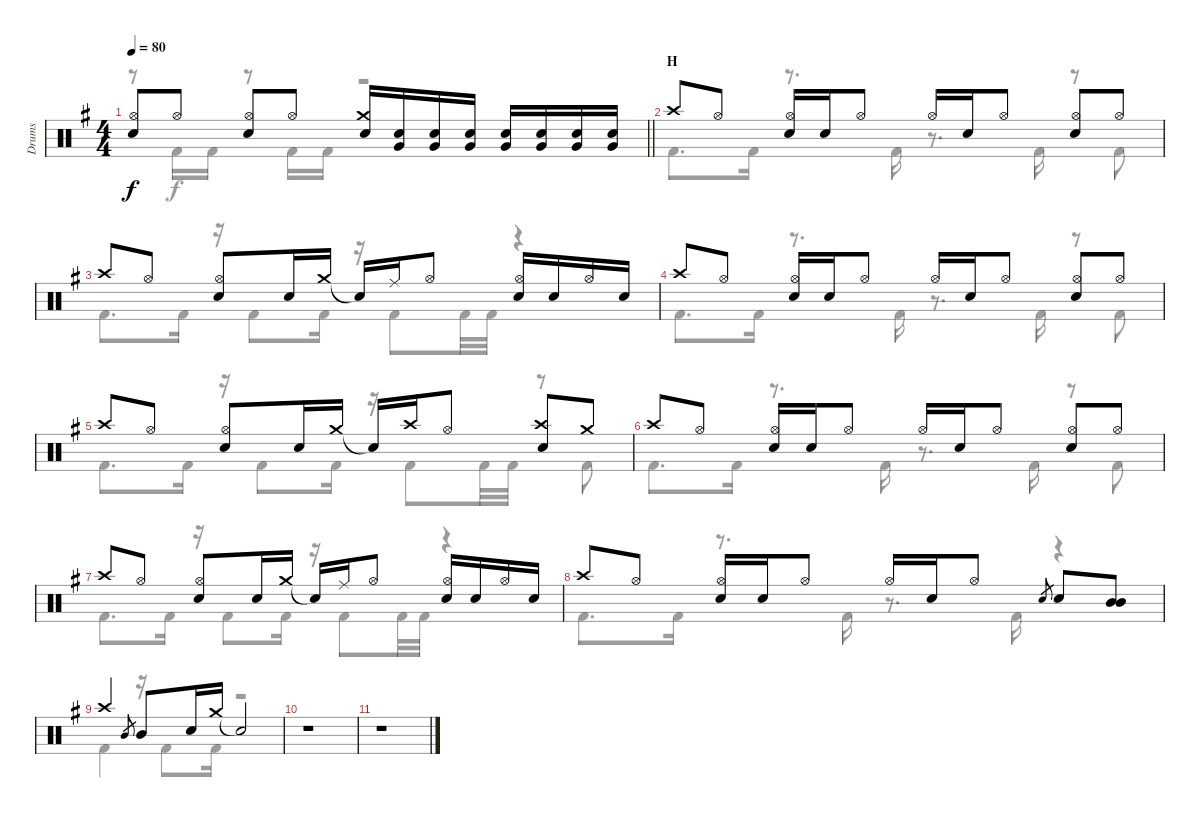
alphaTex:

\track ("Drums" "Drums") {instrument percussion}
\staff {score}
\articulation defaults
\voice
\ts (4 4)
\tempo 80
\clef neutral
\barLineRight lightlight
\ks g
("Hi-Hat (open)" "Snare (hit) 2").8{dy f} "Hi-Hat (open)".8 ("Hi-Hat (open)" "Snare (hit) 2").8 "Hi-Hat (open)".8 ("Crash medium (hit)" "Snare (hit) 2").16 ("Snare (hit) 2" "Very Low Tom (hit)").16 ("Snare (hit) 2" "Very Low Tom (hit)").16 ("Snare (hit) 2" "Very Low Tom (hit)").16 ("Snare (hit) 2" "Very Low Tom (hit)").16 ("Snare (hit) 2" "Very Low Tom (hit)").16 ("Snare (hit) 2" "Very Low Tom (hit)").16 ("Snare (hit) 2" "Very Low Tom (hit)").16 |
\section ("" "H")
"Crash high (hit)".8 "Hi-Hat (open)".8 ("Hi-Hat (open)" "Snare (hit) 2").16 "Snare (hit) 2".16 "Hi-Hat (open)".8 "Hi-Hat (open)".16 "Snare (hit) 2".16 "Hi-Hat (open)".8 ("Hi-Hat (open)" "Snare (hit) 2").8 "Hi-Hat (open)".8 |
"Crash high (hit)".8 "Hi-Hat (open)".8 ("Hi-Hat (open)" "Snare (hit) 2").8 "Snare (hit) 2".16 "Crash medium (hit)".16 "Snare (hit)"{t}.16 "Ride (middle)".16 "Hi-Hat (open)".8 ("Hi-Hat (open)" "Snare (hit) 2").16 "Snare (hit) 2".16 "Hi-Hat (open)".16 "Snare (hit) 2".16 |
"Crash high (hit)".8 "Hi-Hat (open)".8 ("Hi-Hat (open)" "Snare (hit) 2").16 "Snare (hit) 2".16 "Hi-Hat (open)".8 "Hi-Hat (open)".16 "Snare (hit) 2".16 "Hi-Hat (open)".8 ("Hi-Hat (open)" "Snare (hit) 2").8 "Hi-Hat (open)".8 |
"Crash high (hit)".8 "Hi-Hat (open)".8 ("Hi-Hat (open)" "Snare (hit) 2").8 "Snare (hit) 2".16 "Crash medium (hit)".16 "Snare (hit)"{t}.16 "Crash high (hit)".16 "Hi-Hat (open)".8 ("Crash high (hit)" "Snare (hit) 2").8 "Crash medium (hit)".8 |
"Crash high (hit)".8 "Hi-Hat (open)".8 ("Hi-Hat (open)" "Snare (hit) 2").16 "Snare (hit) 2".16 "Hi-Hat (open)".8 "Hi-Hat (open)".16 "Snare (hit) 2".16 "Hi-Hat (open)".8 ("Hi-Hat (open)" "Snare (hit) 2").8 "Hi-Hat (open)".8 |
"Crash high (hit)".8 "Hi-Hat (open)".8 ("Hi-Hat (open)" "Snare (hit) 2").8 "Snare (hit) 2".16 "Crash medium (hit)".16 "Snare (hit)"{t}.16 "Ride (middle)".16 "Hi-Hat (open)".8 ("Hi-Hat (open)" "Snare (hit) 2").16 "Snare (hit) 2".16 "Hi-Hat (open)".16 "Snare (hit) 2".16 |
"Crash high (hit)".8 "Hi-Hat (open)".8 ("Hi-Hat (open)" "Snare (hit) 2").16 "Snare (hit) 2".16 "Hi-Hat (open)".8 "Hi-Hat (open)".16 "Snare (hit) 2".16 "Hi-Hat (open)".8 "Snare (hit) 2".8{gr} "Snare (hit) 2".8 ("Mid Tom (hit)" "Mid Tom (hit)").8 |
"Crash high (hit)".4 "Mid Tom (hit)".8{gr} "Mid Tom (hit)".8 "Snare (hit) 2".16 "Crash medium (hit)".16 "Snare (hit)"{t}.2 |
r.1 |
r.1
\voice
\clef neutral
\ottava regular
\simile none
\barLineRight lightlight
\ks g
r.8{dy f} "Kick (hit) 2".16 "Kick (hit) 2".16 r.8 "Kick (hit) 2".16 "Kick (hit) 2".16 r.2 |
"Kick (hit) 2".8{d} "Kick (hit) 2".16 r.8{d} "Kick (hit) 2".16 r.8{d} "Kick (hit) 2".16 r.8 "Kick (hit) 2".8 |
"Kick (hit) 2".8{d} "Kick (hit) 2".16 r.16 "Kick (hit) 2".8 "Kick (hit) 2".16 r.16 "Kick (hit) 2".8 "Kick (hit) 2".32 "Kick (hit) 2".32 r.4 |
"Kick (hit) 2".8{d} "Kick (hit) 2".16 r.8{d} "Kick (hit) 2".16 r.8{d} "Kick (hit) 2".16 r.8 "Kick (hit) 2".8 |
"Kick (hit) 2".8{d} "Kick (hit) 2".16 r.16 "Kick (hit) 2".8 "Kick (hit) 2".16 r.16 "Kick (hit) 2".8 "Kick (hit) 2".32 "Kick (hit) 2".32 r.8 "Kick (hit) 2".8 |
"Kick (hit) 2".8{d} "Kick (hit) 2".16 r.8{d} "Kick (hit) 2".16 r.8{d} "Kick (hit) 2".16 r.8 "Kick (hit) 2".8 |
"Kick (hit) 2".8{d} "Kick (hit) 2".16 r.16 "Kick (hit) 2".8 "Kick (hit) 2".16 r.16 "Kick (hit) 2".8 "Kick (hit) 2".32 "Kick (hit) 2".32 r.4 |
"Kick (hit) 2".8{d} "Kick (hit) 2".16 r.8{d} "Kick (hit) 2".16 r.8{d} "Kick (hit) 2".16 r.4 |
"Kick (hit) 2".4 r.16 "Kick (hit) 2".8 "Kick (hit) 2".16 r.2 |
r.1 |
r.1
